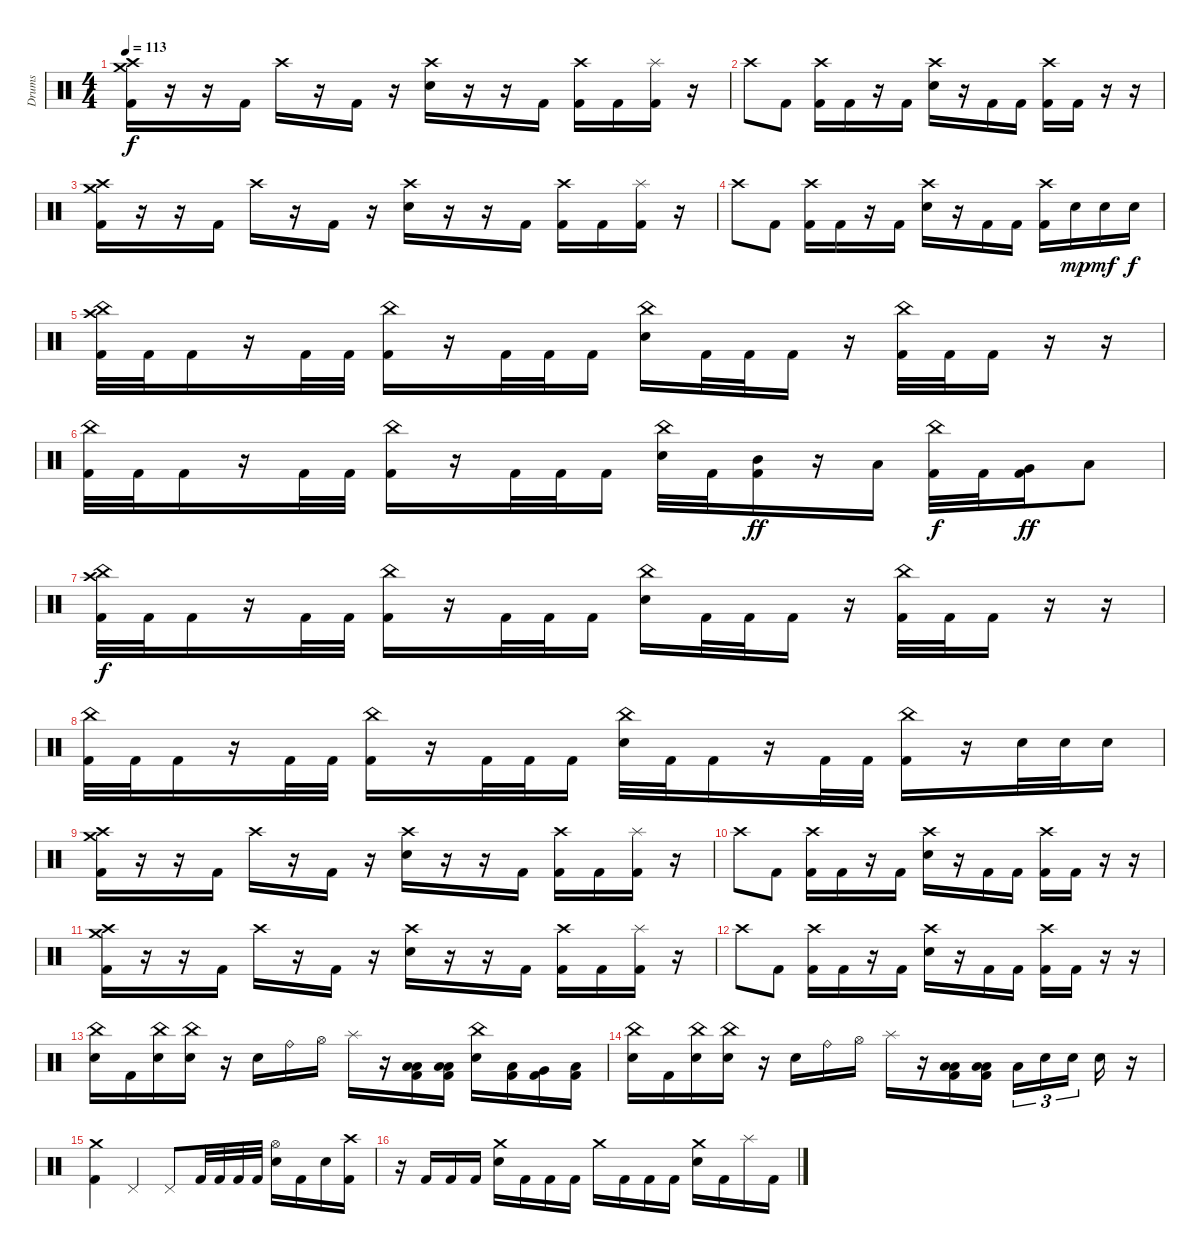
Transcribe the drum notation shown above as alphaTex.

\track ("Drums" "Drums") {instrument percussion}
\staff {score}
\articulation defaults
\ts (4 4)
\tempo 113
\clef neutral
\ks c
("Crash medium (hit)" "Crash high (hit)" "Kick (hit) 2").16{dy f} r.16 r.16 "Kick (hit) 2".16 "Crash high (hit)".16 r.16 "Kick (hit) 2".16 r.16 ("Crash high (hit)" "Snare (hit) 2").16 r.16 r.16 "Kick (hit) 2".16 ("Crash high (hit)" "Kick (hit) 2").16 "Kick (hit) 2".16 ("Splash (hit)" "Kick (hit) 2").16 r.16 |
"Crash high (hit)".8 "Kick (hit) 2".8 ("Crash high (hit)" "Kick (hit) 2").16 "Kick (hit) 2".16 r.16 "Kick (hit) 2".16 ("Crash high (hit)" "Snare (hit) 2").16 r.16 "Kick (hit) 2".16 "Kick (hit) 2".16 ("Crash high (hit)" "Kick (hit) 2").16 "Kick (hit) 2".16 r.16 r.16 |
("Crash medium (hit)" "Crash high (hit)" "Kick (hit) 2").16 r.16 r.16 "Kick (hit) 2".16 "Crash high (hit)".16 r.16 "Kick (hit) 2".16 r.16 ("Crash high (hit)" "Snare (hit) 2").16 r.16 r.16 "Kick (hit) 2".16 ("Crash high (hit)" "Kick (hit) 2").16 "Kick (hit) 2".16 ("Splash (hit)" "Kick (hit) 2").16 r.16 |
"Crash high (hit)".8 "Kick (hit) 2".8 ("Crash high (hit)" "Kick (hit) 2").16 "Kick (hit) 2".16 r.16 "Kick (hit) 2".16 ("Crash high (hit)" "Snare (hit) 2").16 r.16 "Kick (hit) 2".16 "Kick (hit) 2".16 ("Crash high (hit)" "Kick (hit) 2").16 "Snare (hit) 2".16{dy mp} "Snare (hit) 2".16{dy mf} "Snare (hit) 2".16{dy f} |
("China (hit)" "Crash high (hit)" "Kick (hit) 2").32 "Kick (hit) 2".32 "Kick (hit) 2".16 r.16 "Kick (hit) 2".32 "Kick (hit) 2".32 ("China (hit)" "Kick (hit) 2").16 r.16 "Kick (hit) 2".32 "Kick (hit) 2".32 "Kick (hit) 2".16 ("China (hit)" "Snare (hit) 2").16 "Kick (hit) 2".32 "Kick (hit) 2".32 "Kick (hit) 2".16 r.16 ("China (hit)" "Kick (hit) 2").32 "Kick (hit) 2".32 "Kick (hit) 2".16 r.16 r.16 |
("China (hit)" "Kick (hit) 2").32 "Kick (hit) 2".32 "Kick (hit) 2".16 r.16 "Kick (hit) 2".32 "Kick (hit) 2".32 ("China (hit)" "Kick (hit) 2").16 r.16 "Kick (hit) 2".32 "Kick (hit) 2".32 "Kick (hit) 2".16 ("China (hit)" "Snare (hit) 2").32 "Kick (hit) 2".32 ("Mid Tom (hit)" "Kick (hit) 2").16{dy ff} r.16 "Low Tom (hit)".16 ("China (hit)" "Kick (hit) 2").32{dy f} "Kick (hit) 2".32 ("Very Low Tom (hit)" "Kick (hit) 2").16{dy ff} "Low Floor Tom (hit)".8 |
("China (hit)" "Crash high (hit)" "Kick (hit) 2").32{dy f} "Kick (hit) 2".32 "Kick (hit) 2".16 r.16 "Kick (hit) 2".32 "Kick (hit) 2".32 ("China (hit)" "Kick (hit) 2").16 r.16 "Kick (hit) 2".32 "Kick (hit) 2".32 "Kick (hit) 2".16 ("China (hit)" "Snare (hit) 2").16 "Kick (hit) 2".32 "Kick (hit) 2".32 "Kick (hit) 2".16 r.16 ("China (hit)" "Kick (hit) 2").32 "Kick (hit) 2".32 "Kick (hit) 2".16 r.16 r.16 |
("China (hit)" "Kick (hit) 2").32 "Kick (hit) 2".32 "Kick (hit) 2".16 r.16 "Kick (hit) 2".32 "Kick (hit) 2".32 ("China (hit)" "Kick (hit) 2").16 r.16 "Kick (hit) 2".32 "Kick (hit) 2".32 "Kick (hit) 2".16 ("China (hit)" "Snare (hit) 2").32 "Kick (hit) 2".32 "Kick (hit) 2".16 r.16 "Kick (hit) 2".32 "Kick (hit) 2".32 ("China (hit)" "Kick (hit) 2").16 r.16 "Snare (hit) 2".32 "Snare (hit) 2".32 "Snare (hit) 2".16 |
("Crash medium (hit)" "Crash high (hit)" "Kick (hit) 2").16 r.16 r.16 "Kick (hit) 2".16 "Crash high (hit)".16 r.16 "Kick (hit) 2".16 r.16 ("Crash high (hit)" "Snare (hit) 2").16 r.16 r.16 "Kick (hit) 2".16 ("Crash high (hit)" "Kick (hit) 2").16 "Kick (hit) 2".16 ("Splash (hit)" "Kick (hit) 2").16 r.16 |
"Crash high (hit)".8 "Kick (hit) 2".8 ("Crash high (hit)" "Kick (hit) 2").16 "Kick (hit) 2".16 r.16 "Kick (hit) 2".16 ("Crash high (hit)" "Snare (hit) 2").16 r.16 "Kick (hit) 2".16 "Kick (hit) 2".16 ("Crash high (hit)" "Kick (hit) 2").16 "Kick (hit) 2".16 r.16 r.16 |
("Crash medium (hit)" "Crash high (hit)" "Kick (hit) 2").16 r.16 r.16 "Kick (hit) 2".16 "Crash high (hit)".16 r.16 "Kick (hit) 2".16 r.16 ("Crash high (hit)" "Snare (hit) 2").16 r.16 r.16 "Kick (hit) 2".16 ("Crash high (hit)" "Kick (hit) 2").16 "Kick (hit) 2".16 ("Splash (hit)" "Kick (hit) 2").16 r.16 |
"Crash high (hit)".8 "Kick (hit) 2".8 ("Crash high (hit)" "Kick (hit) 2").16 "Kick (hit) 2".16 r.16 "Kick (hit) 2".16 ("Crash high (hit)" "Snare (hit) 2").16 r.16 "Kick (hit) 2".16 "Kick (hit) 2".16 ("Crash high (hit)" "Kick (hit) 2").16 "Kick (hit) 2".16 r.16 r.16 |
("China (hit)" "Snare (hit) 2").16 "Kick (hit) 2".16 ("China (hit)" "Snare (hit) 2").16 ("China (hit)" "Snare (hit) 2").16 r.16 "Snare (hit) 2".16 "Ride (bell)".16 "Hi-Hat (open)".16 "Splash (hit)".16 r.16 ("Low Tom (hit)" "Low Floor Tom (hit)" "Kick (hit) 2").16 ("Low Tom (hit)" "Low Floor Tom (hit)" "Kick (hit) 2").16 ("China (hit)" "Snare (hit) 2").16 ("Low Tom (hit)" "Kick (hit) 2").16 ("Very Low Tom (hit)" "Kick (hit) 2").16 ("Low Floor Tom (hit)" "Kick (hit) 2").16 |
("China (hit)" "Snare (hit) 2").16 "Kick (hit) 2".16 ("China (hit)" "Snare (hit) 2").16 ("China (hit)" "Snare (hit) 2").16 r.16 "Snare (hit) 2".16 "Ride (bell)".16 "Hi-Hat (open)".16 "Splash (hit)".16 r.16 ("Low Tom (hit)" "Low Floor Tom (hit)" "Kick (hit) 2").16 ("Low Tom (hit)" "Low Floor Tom (hit)" "Kick (hit) 2").16 "Low Tom (hit)".16{tu (3 2)} "Snare (hit) 2".16{tu (3 2)} "Snare (hit) 2".16{tu (3 2) beam splitsecondary} "Snare (hit) 2".16 r.16 |
("Crash medium (hit)" "Kick (hit) 2").4 "Pedal Hi-Hat (hit)".4 "Pedal Hi-Hat (hit)".8 "Kick (hit) 2".32 "Kick (hit) 2".32 "Kick (hit) 2".32 "Kick (hit) 2".32 ("Hi-Hat (open)" "Snare (hit) 2").16 "Kick (hit) 2".16 "Snare (hit) 2".16 ("Crash high (hit)" "Kick (hit) 2").16 |
r.16 "Kick (hit) 2".16 "Kick (hit) 2".16 "Kick (hit) 2".16 ("Crash medium (hit)" "Snare (hit) 2").16 "Kick (hit) 2".16 "Kick (hit) 2".16 "Kick (hit) 2".16 "Crash medium (hit)".16 "Kick (hit) 2".16 "Kick (hit) 2".16 "Kick (hit) 2".16 ("Crash medium (hit)" "Snare (hit) 2").16 "Kick (hit) 2".16 "Splash (hit)".16 "Kick (hit) 2".16
